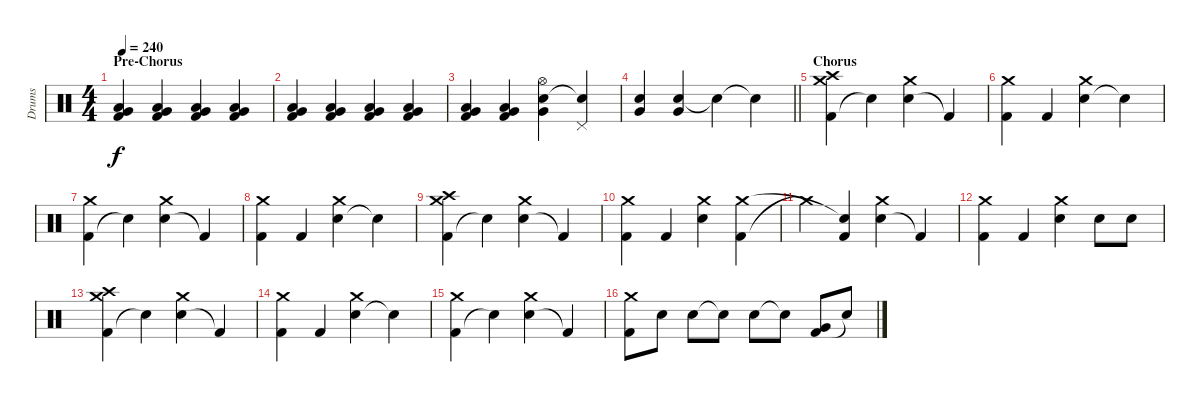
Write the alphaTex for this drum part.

\track ("Drums" "Drums") {instrument percussion}
\staff {score}
\articulation defaults
\ts (4 4)
\section ("" "Pre-Chorus")
\tempo 240
\clef neutral
\ks c
("Very Low Tom (hit)" "Low Tom (hit)" "Kick (hit) 2").4{dy f volume 13} ("Very Low Tom (hit)" "Low Tom (hit)" "Kick (hit) 2").4 ("Very Low Tom (hit)" "Low Tom (hit)" "Kick (hit) 2").4 ("Very Low Tom (hit)" "Low Tom (hit)" "Kick (hit) 2").4 |
("Very Low Tom (hit)" "Low Tom (hit)" "Kick (hit) 2").4 ("Very Low Tom (hit)" "Low Tom (hit)" "Kick (hit) 2").4 ("Very Low Tom (hit)" "Low Tom (hit)" "Kick (hit) 2").4 ("Very Low Tom (hit)" "Low Tom (hit)" "Kick (hit) 2").4 |
("Very Low Tom (hit)" "Low Tom (hit)" "Kick (hit) 2").4 ("Very Low Tom (hit)" "Low Tom (hit)" "Kick (hit) 2").4 ("Electric Snare (hit)" "Very Low Tom (hit)" "Hi-Hat (open)").4 ("Snare (hit)"{t} "Pedal Hi-Hat (hit)").4 |
\barLineRight lightlight
("Electric Snare (hit)" "Very Low Tom (hit)").4 ("Electric Snare (hit)" "Very Low Tom (hit)").4 "Snare (hit)"{t}.4 "Snare (hit)"{t}.4 |
\section ("" "Chorus")
("Kick (hit) 2" "Crash medium (hit)" "Crash high (hit)").4 "Electric Snare (hit)"{t}.4 ("Electric Snare (hit)" "Crash medium (hit)").4 "Kick (hit) 2"{t}.4 |
("Kick (hit) 2" "Crash medium (hit)").4 "Kick (hit) 2".4 ("Electric Snare (hit)" "Crash medium (hit)").4 "Snare (hit)"{t}.4 |
("Kick (hit) 2" "Crash medium (hit)").4 "Electric Snare (hit)"{t}.4 ("Electric Snare (hit)" "Crash medium (hit)").4 "Kick (hit) 2"{t}.4 |
("Kick (hit) 2" "Crash medium (hit)").4 "Kick (hit) 2".4 ("Electric Snare (hit)" "Crash medium (hit)").4 "Snare (hit)"{t}.4 |
("Kick (hit) 2" "Crash medium (hit)" "Crash high (hit)").4 "Electric Snare (hit)"{t}.4 ("Electric Snare (hit)" "Crash medium (hit)").4 "Kick (hit) 2"{t}.4 |
("Kick (hit) 2" "Crash medium (hit)").4 "Kick (hit) 2".4 ("Electric Snare (hit)" "Crash medium (hit)").4 ("Kick (hit) 2" "Crash medium (hit)").4 |
"Crash medium (hit)"{t}.4 ("Kick (hit) 2" "Snare (hit)"{t}).4 ("Electric Snare (hit)" "Crash medium (hit)").4 "Kick (hit) 2"{t}.4 |
("Kick (hit) 2" "Crash medium (hit)").4 "Kick (hit) 2".4 ("Electric Snare (hit)" "Crash medium (hit)").4 "Electric Snare (hit)".8 "Electric Snare (hit)".8 |
("Kick (hit) 2" "Crash medium (hit)" "Crash high (hit)").4 "Electric Snare (hit)"{t}.4 ("Electric Snare (hit)" "Crash medium (hit)").4 "Kick (hit) 2"{t}.4 |
("Kick (hit) 2" "Crash medium (hit)").4 "Kick (hit) 2".4 ("Electric Snare (hit)" "Crash medium (hit)").4 "Snare (hit)"{t}.4 |
("Kick (hit) 2" "Crash medium (hit)").4 "Electric Snare (hit)"{t}.4 ("Electric Snare (hit)" "Crash medium (hit)").4 "Kick (hit) 2"{t}.4 |
("Kick (hit) 2" "Crash medium (hit)").8 "Electric Snare (hit)".8 "Electric Snare (hit)".8 "Snare (hit)"{t}.8 "Electric Snare (hit)".8 "Snare (hit)"{t}.8 ("Kick (hit) 2" "Very Low Tom (hit)").8 "Snare (hit)"{t}.8
